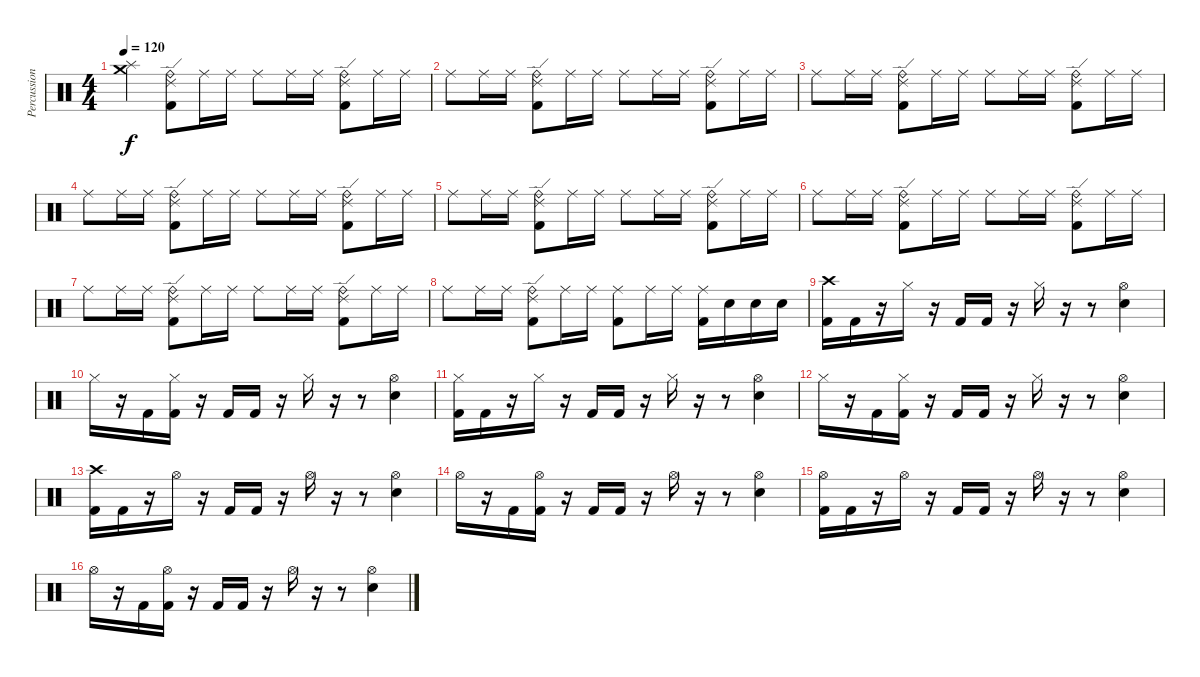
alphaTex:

\track ("Percussion" "Percussion") {instrument percussion}
\staff {score}
\articulation defaults
\ts (4 4)
\tempo 120
\clef neutral
\ks c
("Crash medium (hit)" "Splash (hit)").4{dy f} ("Ride (edge) 2" "Ride (bell)" "Kick (hit) 2").8 "Ride (middle)".16 "Ride (middle)".16 "Ride (middle)".8 "Ride (middle)".16 "Ride (middle)".16 ("Ride (edge) 2" "Ride (bell)" "Kick (hit) 2").8 "Ride (middle)".16 "Ride (middle)".16 |
"Ride (middle)".8 "Ride (middle)".16 "Ride (middle)".16 ("Ride (edge) 2" "Ride (bell)" "Kick (hit) 2").8 "Ride (middle)".16 "Ride (middle)".16 "Ride (middle)".8 "Ride (middle)".16 "Ride (middle)".16 ("Ride (edge) 2" "Ride (bell)" "Kick (hit) 2").8 "Ride (middle)".16 "Ride (middle)".16 |
"Ride (middle)".8 "Ride (middle)".16 "Ride (middle)".16 ("Ride (edge) 2" "Ride (bell)" "Kick (hit) 2").8 "Ride (middle)".16 "Ride (middle)".16 "Ride (middle)".8 "Ride (middle)".16 "Ride (middle)".16 ("Ride (edge) 2" "Ride (bell)" "Kick (hit) 2").8 "Ride (middle)".16 "Ride (middle)".16 |
"Ride (middle)".8 "Ride (middle)".16 "Ride (middle)".16 ("Ride (edge) 2" "Ride (bell)" "Kick (hit) 2").8 "Ride (middle)".16 "Ride (middle)".16 "Ride (middle)".8 "Ride (middle)".16 "Ride (middle)".16 ("Ride (edge) 2" "Ride (bell)" "Kick (hit) 2").8 "Ride (middle)".16 "Ride (middle)".16 |
"Ride (middle)".8 "Ride (middle)".16 "Ride (middle)".16 ("Ride (edge) 2" "Ride (bell)" "Kick (hit) 2").8 "Ride (middle)".16 "Ride (middle)".16 "Ride (middle)".8 "Ride (middle)".16 "Ride (middle)".16 ("Ride (edge) 2" "Ride (bell)" "Kick (hit) 2").8 "Ride (middle)".16 "Ride (middle)".16 |
"Ride (middle)".8 "Ride (middle)".16 "Ride (middle)".16 ("Ride (edge) 2" "Ride (bell)" "Kick (hit) 2").8 "Ride (middle)".16 "Ride (middle)".16 "Ride (middle)".8 "Ride (middle)".16 "Ride (middle)".16 ("Ride (edge) 2" "Ride (bell)" "Kick (hit) 2").8 "Ride (middle)".16 "Ride (middle)".16 |
"Ride (middle)".8 "Ride (middle)".16 "Ride (middle)".16 ("Ride (edge) 2" "Ride (bell)" "Kick (hit) 2").8 "Ride (middle)".16 "Ride (middle)".16 "Ride (middle)".8 "Ride (middle)".16 "Ride (middle)".16 ("Ride (edge) 2" "Ride (bell)" "Kick (hit) 2").8 "Ride (middle)".16 "Ride (middle)".16 |
"Ride (middle)".8 "Ride (middle)".16 "Ride (middle)".16 ("Ride (edge) 2" "Ride (bell)" "Kick (hit) 2").8 "Ride (middle)".16 "Ride (middle)".16 ("Ride (middle)" "Kick (hit) 2").8 "Ride (middle)".16 "Ride (middle)".16 ("Ride (middle)" "Kick (hit) 2").16 "Electric Snare (hit)".16 "Electric Snare (hit)".16 "Electric Snare (hit)".16 |
("Crash high (hit)" "Kick (hit) 2").16 "Kick (hit) 2".16 r.16 "Hi-Hat (closed)".16 r.16 "Kick (hit) 2".16 "Kick (hit) 2".16 r.16 "Hi-Hat (closed)".16 r.16 r.8 ("Hi-Hat (open)" "Electric Snare (hit)").4 |
"Hi-Hat (closed)".16 r.16 "Kick (hit) 2".16 ("Hi-Hat (closed)" "Kick (hit) 2").16 r.16 "Kick (hit) 2".16 "Kick (hit) 2".16 r.16 "Hi-Hat (closed)".16 r.16 r.8 ("Hi-Hat (open)" "Electric Snare (hit)").4 |
("Hi-Hat (closed)" "Kick (hit) 2").16 "Kick (hit) 2".16 r.16 "Hi-Hat (closed)".16 r.16 "Kick (hit) 2".16 "Kick (hit) 2".16 r.16 "Hi-Hat (closed)".16 r.16 r.8 ("Hi-Hat (open)" "Electric Snare (hit)").4 |
"Hi-Hat (closed)".16 r.16 "Kick (hit) 2".16 ("Hi-Hat (closed)" "Kick (hit) 2").16 r.16 "Kick (hit) 2".16 "Kick (hit) 2".16 r.16 "Hi-Hat (closed)".16 r.16 r.8 ("Hi-Hat (open)" "Electric Snare (hit)").4 |
("Crash high (hit)" "Kick (hit) 2").16 "Kick (hit) 2".16 r.16 "Hi-Hat (open)".16 r.16 "Kick (hit) 2".16 "Kick (hit) 2".16 r.16 "Hi-Hat (open)".16 r.16 r.8 ("Hi-Hat (open)" "Electric Snare (hit)").4 |
"Hi-Hat (open)".16 r.16 "Kick (hit) 2".16 ("Hi-Hat (open)" "Kick (hit) 2").16 r.16 "Kick (hit) 2".16 "Kick (hit) 2".16 r.16 "Hi-Hat (open)".16 r.16 r.8 ("Hi-Hat (open)" "Electric Snare (hit)").4 |
("Hi-Hat (open)" "Kick (hit) 2").16 "Kick (hit) 2".16 r.16 "Hi-Hat (open)".16 r.16 "Kick (hit) 2".16 "Kick (hit) 2".16 r.16 "Hi-Hat (open)".16 r.16 r.8 ("Hi-Hat (open)" "Electric Snare (hit)").4 |
"Hi-Hat (open)".16 r.16 "Kick (hit) 2".16 ("Hi-Hat (open)" "Kick (hit) 2").16 r.16 "Kick (hit) 2".16 "Kick (hit) 2".16 r.16 "Hi-Hat (open)".16 r.16 r.8 ("Hi-Hat (open)" "Electric Snare (hit)").4
